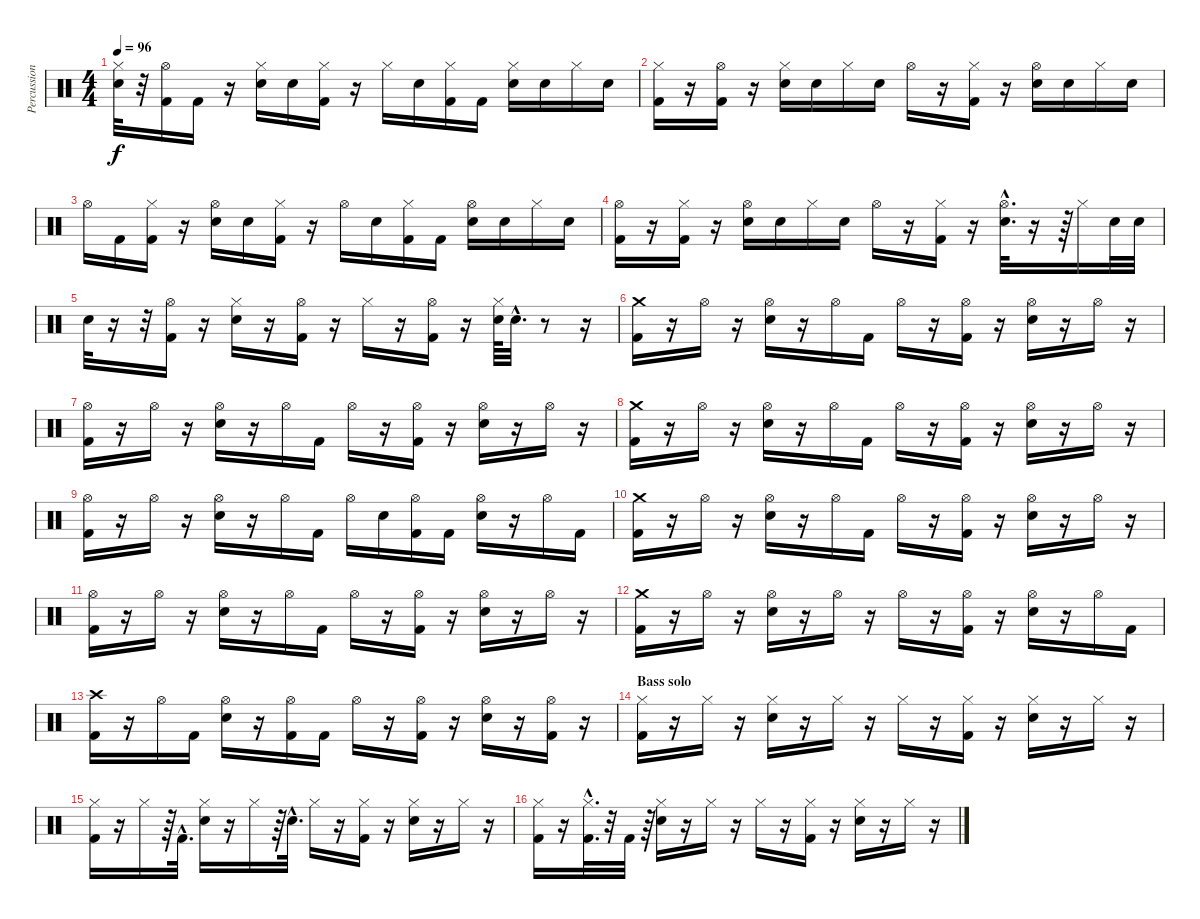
\track ("Percussion" "Percussion") {instrument percussion}
\staff {score}
\articulation defaults
\ts (4 4)
\tempo 96
\clef neutral
\ks c
("Electric Snare (hit)" "Hi-Hat (closed)").32{dy f} r.32 ("Hi-Hat (open)" "Kick (hit) 2").16 "Kick (hit) 2".16 r.16 ("Hi-Hat (closed)" "Electric Snare (hit)").16 "Electric Snare (hit)".16 ("Hi-Hat (closed)" "Kick (hit) 2").16 r.16 "Hi-Hat (closed)".16 "Electric Snare (hit)".16 ("Hi-Hat (closed)" "Kick (hit) 2").16 "Kick (hit) 2".16 ("Hi-Hat (closed)" "Electric Snare (hit)").16 "Electric Snare (hit)".16 "Hi-Hat (closed)".16 "Electric Snare (hit)".16 |
("Kick (hit) 2" "Hi-Hat (closed)").16 r.16 ("Hi-Hat (open)" "Kick (hit) 2").16 r.16 ("Hi-Hat (closed)" "Electric Snare (hit)").16 "Electric Snare (hit)".16 "Hi-Hat (closed)".16 "Electric Snare (hit)".16 "Hi-Hat (open)".16 r.16 ("Hi-Hat (closed)" "Kick (hit) 2").16 r.16 ("Hi-Hat (open)" "Electric Snare (hit)").16 "Electric Snare (hit)".16 "Hi-Hat (closed)".16 "Electric Snare (hit)".16 |
"Hi-Hat (open)".16 "Kick (hit) 2".16 ("Hi-Hat (closed)" "Kick (hit) 2").16 r.16 ("Hi-Hat (open)" "Electric Snare (hit)").16 "Electric Snare (hit)".16 ("Hi-Hat (closed)" "Kick (hit) 2").16 r.16 "Hi-Hat (open)".16 "Electric Snare (hit)".16 ("Hi-Hat (closed)" "Kick (hit) 2").16 "Kick (hit) 2".16 ("Hi-Hat (open)" "Electric Snare (hit)").16 "Electric Snare (hit)".16 "Hi-Hat (closed)".16 "Electric Snare (hit)".16 |
("Kick (hit) 2" "Hi-Hat (open)").16 r.16 ("Hi-Hat (closed)" "Kick (hit) 2").16 r.16 ("Hi-Hat (open)" "Electric Snare (hit)").16 "Electric Snare (hit)".16 "Hi-Hat (closed)".16 "Electric Snare (hit)".16 "Hi-Hat (open)".16 r.16 ("Hi-Hat (closed)" "Kick (hit) 2").16 r.16 ("Hi-Hat (open)"{hac} "Electric Snare (hit)"{hac}).32{d} r.16 r.64 "Hi-Hat (closed)".16 "Electric Snare (hit)".32 "Electric Snare (hit)".32 |
"Electric Snare (hit)".32 r.16 r.32 ("Kick (hit) 2" "Hi-Hat (open)").16 r.16 ("Electric Snare (hit)" "Hi-Hat (closed)").16 r.16 ("Kick (hit) 2" "Hi-Hat (open)").16 r.16 "Hi-Hat (closed)".16 r.16 ("Kick (hit) 2" "Hi-Hat (open)").16 r.16 ("Hi-Hat (closed)" "Electric Snare (hit)").64 "Electric Snare (hit)"{hac}.32{d} r.8 r.16 |
("Kick (hit) 2" "Crash medium (hit)").16 r.16 "Hi-Hat (open)".16 r.16 ("Electric Snare (hit)" "Hi-Hat (open)").16 r.16 "Hi-Hat (open)".16 "Kick (hit) 2".16 "Hi-Hat (open)".16 r.16 ("Hi-Hat (open)" "Kick (hit) 2").16 r.16 ("Hi-Hat (open)" "Electric Snare (hit)").16 r.16 "Hi-Hat (open)".16 r.16 |
("Hi-Hat (open)" "Kick (hit) 2").16 r.16 "Hi-Hat (open)".16 r.16 ("Hi-Hat (open)" "Electric Snare (hit)").16 r.16 "Hi-Hat (open)".16 "Kick (hit) 2".16 "Hi-Hat (open)".16 r.16 ("Hi-Hat (open)" "Kick (hit) 2").16 r.16 ("Hi-Hat (open)" "Electric Snare (hit)").16 r.16 "Hi-Hat (open)".16 r.16 |
("Kick (hit) 2" "Crash medium (hit)").16 r.16 "Hi-Hat (open)".16 r.16 ("Electric Snare (hit)" "Hi-Hat (open)").16 r.16 "Hi-Hat (open)".16 "Kick (hit) 2".16 "Hi-Hat (open)".16 r.16 ("Hi-Hat (open)" "Kick (hit) 2").16 r.16 ("Hi-Hat (open)" "Electric Snare (hit)").16 r.16 "Hi-Hat (open)".16 r.16 |
("Hi-Hat (open)" "Kick (hit) 2").16 r.16 "Hi-Hat (open)".16 r.16 ("Hi-Hat (open)" "Electric Snare (hit)").16 r.16 "Hi-Hat (open)".16 "Kick (hit) 2".16 "Hi-Hat (open)".16 "Electric Snare (hit)".16 ("Hi-Hat (open)" "Kick (hit) 2").16 "Kick (hit) 2".16 ("Hi-Hat (open)" "Electric Snare (hit)").16 r.16 "Hi-Hat (open)".16 "Kick (hit) 2".16 |
("Kick (hit) 2" "Crash medium (hit)").16 r.16 "Hi-Hat (open)".16 r.16 ("Electric Snare (hit)" "Hi-Hat (open)").16 r.16 "Hi-Hat (open)".16 "Kick (hit) 2".16 "Hi-Hat (open)".16 r.16 ("Hi-Hat (open)" "Kick (hit) 2").16 r.16 ("Hi-Hat (open)" "Electric Snare (hit)").16 r.16 "Hi-Hat (open)".16 r.16 |
("Hi-Hat (open)" "Kick (hit) 2").16 r.16 "Hi-Hat (open)".16 r.16 ("Hi-Hat (open)" "Electric Snare (hit)").16 r.16 "Hi-Hat (open)".16 "Kick (hit) 2".16 "Hi-Hat (open)".16 r.16 ("Hi-Hat (open)" "Kick (hit) 2").16 r.16 ("Hi-Hat (open)" "Electric Snare (hit)").16 r.16 "Hi-Hat (open)".16 r.16 |
("Kick (hit) 2" "Crash medium (hit)").16 r.16 "Hi-Hat (open)".16 r.16 ("Electric Snare (hit)" "Hi-Hat (open)").16 r.16 "Hi-Hat (open)".16 r.16 "Hi-Hat (open)".16 r.16 ("Kick (hit) 2" "Hi-Hat (open)").16 r.16 ("Hi-Hat (open)" "Electric Snare (hit)").16 r.16 "Hi-Hat (open)".16 "Kick (hit) 2".16 |
("Crash high (hit)" "Kick (hit) 2").16 r.16 "Hi-Hat (open)".16 "Kick (hit) 2".16 ("Hi-Hat (open)" "Electric Snare (hit)").16 r.16 ("Kick (hit) 2" "Hi-Hat (open)").16 "Kick (hit) 2".16 "Hi-Hat (open)".16 r.16 ("Hi-Hat (open)" "Kick (hit) 2").16 r.16 ("Hi-Hat (open)" "Electric Snare (hit)").16 r.16 ("Kick (hit) 2" "Hi-Hat (open)").16 r.16 |
\section ("" "Bass solo")
("Kick (hit) 2" "Hi-Hat (closed)").16 r.16 "Hi-Hat (closed)".16 r.16 ("Hi-Hat (closed)" "Electric Snare (hit)").16 r.16 "Hi-Hat (closed)".16 r.16 "Hi-Hat (closed)".16 r.16 ("Hi-Hat (closed)" "Kick (hit) 2").16 r.16 ("Hi-Hat (closed)" "Electric Snare (hit)").16 r.16 "Hi-Hat (closed)".16 r.16 |
("Kick (hit) 2" "Hi-Hat (closed)").16 r.16 "Hi-Hat (closed)".16 r.64 "Kick (hit) 2"{hac}.32{d} ("Hi-Hat (closed)" "Electric Snare (hit)").16 r.16 "Hi-Hat (closed)".16 r.64 "Electric Snare (hit)"{hac}.32{d} "Hi-Hat (closed)".16 r.16 ("Hi-Hat (closed)" "Kick (hit) 2").16 r.16 ("Hi-Hat (closed)" "Electric Snare (hit)").16 r.16 "Hi-Hat (closed)".16 r.16 |
("Kick (hit) 2" "Hi-Hat (closed)").16 r.16 ("Kick (hit) 2"{hac} "Hi-Hat (closed)"{hac}).32{d} r.32 "Kick (hit) 2".32 r.64 ("Hi-Hat (closed)" "Electric Snare (hit)").16 r.16 "Hi-Hat (closed)".16 r.16 "Hi-Hat (closed)".16 r.16 ("Hi-Hat (closed)" "Kick (hit) 2").16 r.16 ("Hi-Hat (closed)" "Electric Snare (hit)").16 r.16 "Hi-Hat (closed)".16 r.16
